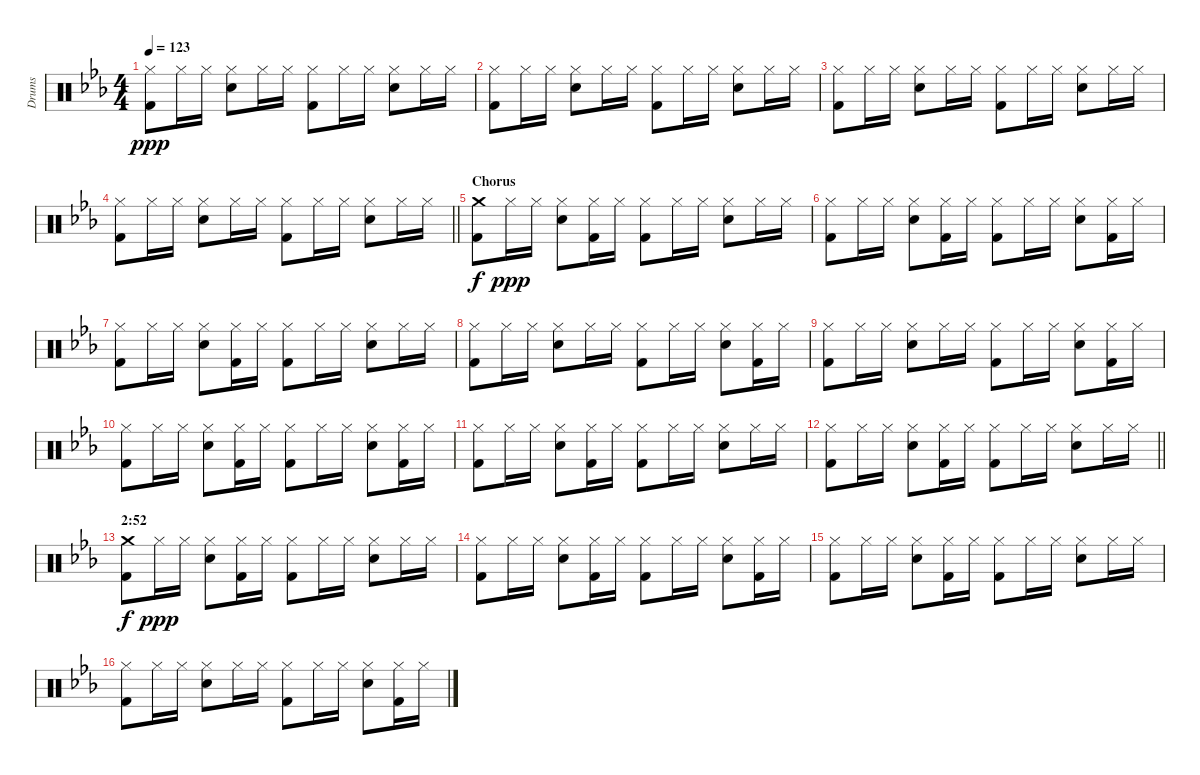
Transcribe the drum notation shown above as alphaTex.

\track ("Drums" "Drums") {instrument percussion}
\staff {score}
\articulation defaults
\ts (4 4)
\tempo 123
\clef neutral
\ks eb
("Hi-Hat (closed)" "Kick (hit) 2").8{dy ppp} "Hi-Hat (closed)".16 "Hi-Hat (closed)".16 ("Hi-Hat (closed)" "Electric Snare (hit)").8 "Hi-Hat (closed)".16 "Hi-Hat (closed)".16 ("Hi-Hat (closed)" "Kick (hit) 2").8 "Hi-Hat (closed)".16 "Hi-Hat (closed)".16 ("Hi-Hat (closed)" "Electric Snare (hit)").8 "Hi-Hat (closed)".16 "Hi-Hat (closed)".16 |
("Hi-Hat (closed)" "Kick (hit) 2").8 "Hi-Hat (closed)".16 "Hi-Hat (closed)".16 ("Hi-Hat (closed)" "Electric Snare (hit)").8 "Hi-Hat (closed)".16 "Hi-Hat (closed)".16 ("Hi-Hat (closed)" "Kick (hit) 2").8 "Hi-Hat (closed)".16 "Hi-Hat (closed)".16 ("Hi-Hat (closed)" "Electric Snare (hit)").8 "Hi-Hat (closed)".16 "Hi-Hat (closed)".16 |
("Hi-Hat (closed)" "Kick (hit) 2").8 "Hi-Hat (closed)".16 "Hi-Hat (closed)".16 ("Hi-Hat (closed)" "Electric Snare (hit)").8 "Hi-Hat (closed)".16 "Hi-Hat (closed)".16 ("Hi-Hat (closed)" "Kick (hit) 2").8 "Hi-Hat (closed)".16 "Hi-Hat (closed)".16 ("Hi-Hat (closed)" "Electric Snare (hit)").8 "Hi-Hat (closed)".16 "Hi-Hat (closed)".16 |
\barLineRight lightlight
("Hi-Hat (closed)" "Kick (hit) 2").8 "Hi-Hat (closed)".16 "Hi-Hat (closed)".16 ("Hi-Hat (closed)" "Electric Snare (hit)").8 "Hi-Hat (closed)".16 "Hi-Hat (closed)".16 ("Hi-Hat (closed)" "Kick (hit) 2").8 "Hi-Hat (closed)".16 "Hi-Hat (closed)".16 ("Hi-Hat (closed)" "Electric Snare (hit)").8 "Hi-Hat (closed)".16 "Hi-Hat (closed)".16 |
\section ("" "Chorus")
("Crash medium (hit)" "Kick (hit) 2").8{dy f} "Hi-Hat (closed)".16{dy ppp} "Hi-Hat (closed)".16 ("Hi-Hat (closed)" "Electric Snare (hit)").8 ("Hi-Hat (closed)" "Kick (hit) 2").16 "Hi-Hat (closed)".16 ("Hi-Hat (closed)" "Kick (hit) 2").8 "Hi-Hat (closed)".16 "Hi-Hat (closed)".16 ("Hi-Hat (closed)" "Electric Snare (hit)").8 "Hi-Hat (closed)".16 "Hi-Hat (closed)".16 |
("Hi-Hat (closed)" "Kick (hit) 2").8 "Hi-Hat (closed)".16 "Hi-Hat (closed)".16 ("Hi-Hat (closed)" "Electric Snare (hit)").8 ("Hi-Hat (closed)" "Kick (hit) 2").16 "Hi-Hat (closed)".16 ("Hi-Hat (closed)" "Kick (hit) 2").8 "Hi-Hat (closed)".16 "Hi-Hat (closed)".16 ("Hi-Hat (closed)" "Electric Snare (hit)").8 ("Hi-Hat (closed)" "Kick (hit) 2").16 "Hi-Hat (closed)".16 |
("Hi-Hat (closed)" "Kick (hit) 2").8 "Hi-Hat (closed)".16 "Hi-Hat (closed)".16 ("Hi-Hat (closed)" "Electric Snare (hit)").8 ("Hi-Hat (closed)" "Kick (hit) 2").16 "Hi-Hat (closed)".16 ("Hi-Hat (closed)" "Kick (hit) 2").8 "Hi-Hat (closed)".16 "Hi-Hat (closed)".16 ("Hi-Hat (closed)" "Electric Snare (hit)").8 "Hi-Hat (closed)".16 "Hi-Hat (closed)".16 |
("Hi-Hat (closed)" "Kick (hit) 2").8 "Hi-Hat (closed)".16 "Hi-Hat (closed)".16 ("Hi-Hat (closed)" "Electric Snare (hit)").8 "Hi-Hat (closed)".16 "Hi-Hat (closed)".16 ("Hi-Hat (closed)" "Kick (hit) 2").8 "Hi-Hat (closed)".16 "Hi-Hat (closed)".16 ("Hi-Hat (closed)" "Electric Snare (hit)").8 ("Hi-Hat (closed)" "Kick (hit) 2").16 "Hi-Hat (closed)".16 |
("Hi-Hat (closed)" "Kick (hit) 2").8 "Hi-Hat (closed)".16 "Hi-Hat (closed)".16 ("Hi-Hat (closed)" "Electric Snare (hit)").8 "Hi-Hat (closed)".16 "Hi-Hat (closed)".16 ("Hi-Hat (closed)" "Kick (hit) 2").8 "Hi-Hat (closed)".16 "Hi-Hat (closed)".16 ("Hi-Hat (closed)" "Electric Snare (hit)").8 ("Hi-Hat (closed)" "Kick (hit) 2").16 "Hi-Hat (closed)".16 |
("Hi-Hat (closed)" "Kick (hit) 2").8 "Hi-Hat (closed)".16 "Hi-Hat (closed)".16 ("Hi-Hat (closed)" "Electric Snare (hit)").8 ("Hi-Hat (closed)" "Kick (hit) 2").16 "Hi-Hat (closed)".16 ("Hi-Hat (closed)" "Kick (hit) 2").8 "Hi-Hat (closed)".16 "Hi-Hat (closed)".16 ("Hi-Hat (closed)" "Electric Snare (hit)").8 ("Hi-Hat (closed)" "Kick (hit) 2").16 "Hi-Hat (closed)".16 |
("Hi-Hat (closed)" "Kick (hit) 2").8 "Hi-Hat (closed)".16 "Hi-Hat (closed)".16 ("Hi-Hat (closed)" "Electric Snare (hit)").8 ("Hi-Hat (closed)" "Kick (hit) 2").16 "Hi-Hat (closed)".16 ("Hi-Hat (closed)" "Kick (hit) 2").8 "Hi-Hat (closed)".16 "Hi-Hat (closed)".16 ("Hi-Hat (closed)" "Electric Snare (hit)").8 "Hi-Hat (closed)".16 "Hi-Hat (closed)".16 |
\barLineRight lightlight
("Hi-Hat (closed)" "Kick (hit) 2").8 "Hi-Hat (closed)".16 "Hi-Hat (closed)".16 ("Hi-Hat (closed)" "Electric Snare (hit)").8 ("Hi-Hat (closed)" "Kick (hit) 2").16 "Hi-Hat (closed)".16 ("Hi-Hat (closed)" "Kick (hit) 2").8 "Hi-Hat (closed)".16 "Hi-Hat (closed)".16 ("Hi-Hat (closed)" "Electric Snare (hit)").8 "Hi-Hat (closed)".16 "Hi-Hat (closed)".16 |
\section ("" "2:52")
("Crash medium (hit)" "Kick (hit) 2").8{dy f} "Hi-Hat (closed)".16{dy ppp} "Hi-Hat (closed)".16 ("Hi-Hat (closed)" "Electric Snare (hit)").8 ("Hi-Hat (closed)" "Kick (hit) 2").16 "Hi-Hat (closed)".16 ("Hi-Hat (closed)" "Kick (hit) 2").8 "Hi-Hat (closed)".16 "Hi-Hat (closed)".16 ("Hi-Hat (closed)" "Electric Snare (hit)").8 "Hi-Hat (closed)".16 "Hi-Hat (closed)".16 |
("Hi-Hat (closed)" "Kick (hit) 2").8 "Hi-Hat (closed)".16 "Hi-Hat (closed)".16 ("Hi-Hat (closed)" "Electric Snare (hit)").8 ("Hi-Hat (closed)" "Kick (hit) 2").16 "Hi-Hat (closed)".16 ("Hi-Hat (closed)" "Kick (hit) 2").8 "Hi-Hat (closed)".16 "Hi-Hat (closed)".16 ("Hi-Hat (closed)" "Electric Snare (hit)").8 ("Hi-Hat (closed)" "Kick (hit) 2").16 "Hi-Hat (closed)".16 |
("Hi-Hat (closed)" "Kick (hit) 2").8 "Hi-Hat (closed)".16 "Hi-Hat (closed)".16 ("Hi-Hat (closed)" "Electric Snare (hit)").8 ("Hi-Hat (closed)" "Kick (hit) 2").16 "Hi-Hat (closed)".16 ("Hi-Hat (closed)" "Kick (hit) 2").8 "Hi-Hat (closed)".16 "Hi-Hat (closed)".16 ("Hi-Hat (closed)" "Electric Snare (hit)").8 "Hi-Hat (closed)".16 "Hi-Hat (closed)".16 |
("Hi-Hat (closed)" "Kick (hit) 2").8 "Hi-Hat (closed)".16 "Hi-Hat (closed)".16 ("Hi-Hat (closed)" "Electric Snare (hit)").8 "Hi-Hat (closed)".16 "Hi-Hat (closed)".16 ("Hi-Hat (closed)" "Kick (hit) 2").8 "Hi-Hat (closed)".16 "Hi-Hat (closed)".16 ("Hi-Hat (closed)" "Electric Snare (hit)").8 ("Hi-Hat (closed)" "Kick (hit) 2").16 "Hi-Hat (closed)".16
